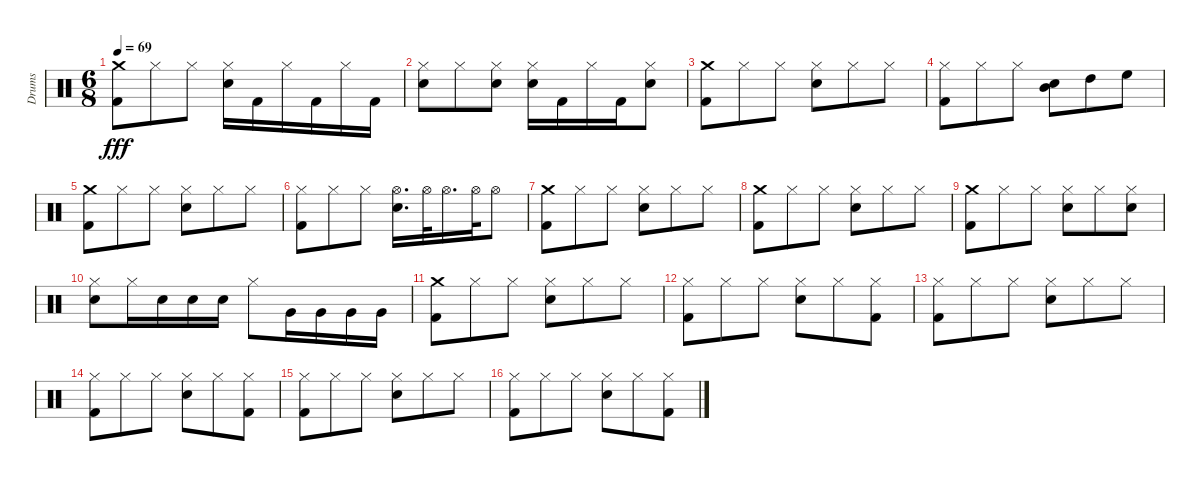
\track ("Drums" "Drums") {instrument percussion}
\staff {score}
\articulation defaults
\ts (6 8)
\tempo 69
\clef neutral
\ks c
("Kick (hit) 2" "Crash medium (hit)").8{dy fff} "Hi-Hat (closed)".8 "Hi-Hat (closed)".8 ("Snare (hit) 2" "Hi-Hat (closed)").16 "Kick (hit) 2".16 "Hi-Hat (closed)".16 "Kick (hit) 2".16 "Hi-Hat (closed)".16 "Kick (hit) 2".16 |
("Snare (hit) 2" "Hi-Hat (closed)").8 "Hi-Hat (closed)".8 ("Snare (hit) 2" "Hi-Hat (closed)").8 ("Snare (hit) 2" "Hi-Hat (closed)").16 "Kick (hit) 2".16 "Hi-Hat (closed)".16 "Kick (hit) 2".16 ("Snare (hit) 2" "Hi-Hat (closed)").8 |
("Kick (hit) 2" "Crash medium (hit)").8 "Hi-Hat (closed)".8 "Hi-Hat (closed)".8 ("Snare (hit) 2" "Hi-Hat (closed)").8 "Hi-Hat (closed)".8 "Hi-Hat (closed)".8 |
("Kick (hit) 2" "Hi-Hat (closed)").8 "Hi-Hat (closed)".8 "Hi-Hat (closed)".8 ("Snare (hit) 2" "Mid Tom (hit)").8 "High Tom (hit)".8 "High Floor Tom (hit)".8 |
("Kick (hit) 2" "Crash medium (hit)").8 "Hi-Hat (closed)".8 "Hi-Hat (closed)".8 ("Snare (hit) 2" "Hi-Hat (closed)").8 "Hi-Hat (closed)".8 "Hi-Hat (closed)".8 |
("Kick (hit) 2" "Hi-Hat (closed)").8 "Hi-Hat (closed)".8 "Hi-Hat (closed)".8 ("Snare (hit) 2" "Hi-Hat (open)").16{d} "Hi-Hat (open)".32 "Hi-Hat (open)".16{d} "Hi-Hat (open)".32 "Hi-Hat (open)".8 |
("Kick (hit) 2" "Crash medium (hit)").8 "Hi-Hat (closed)".8 "Hi-Hat (closed)".8 ("Snare (hit) 2" "Hi-Hat (closed)").8 "Hi-Hat (closed)".8 "Hi-Hat (closed)".8 |
("Kick (hit) 2" "Crash medium (hit)").8 "Hi-Hat (closed)".8 "Hi-Hat (closed)".8 ("Snare (hit) 2" "Hi-Hat (closed)").8 "Hi-Hat (closed)".8 "Hi-Hat (closed)".8 |
("Kick (hit) 2" "Crash medium (hit)").8 "Hi-Hat (closed)".8 "Hi-Hat (closed)".8 ("Snare (hit) 2" "Hi-Hat (closed)").8 "Hi-Hat (closed)".8 ("Snare (hit) 2" "Hi-Hat (closed)").8 |
("Snare (hit) 2" "Hi-Hat (closed)").8 "Hi-Hat (closed)".16 "Snare (hit) 2".16 "Snare (hit) 2".16 "Snare (hit) 2".16 "Hi-Hat (closed)".8 "Very Low Tom (hit)".16 "Very Low Tom (hit)".16 "Very Low Tom (hit)".16 "Very Low Tom (hit)".16 |
("Kick (hit) 2" "Crash medium (hit)").8 "Hi-Hat (closed)".8 "Hi-Hat (closed)".8 ("Snare (hit) 2" "Hi-Hat (closed)").8 "Hi-Hat (closed)".8 "Hi-Hat (closed)".8 |
("Kick (hit) 2" "Hi-Hat (closed)").8 "Hi-Hat (closed)".8 "Hi-Hat (closed)".8 ("Snare (hit) 2" "Hi-Hat (closed)").8 "Hi-Hat (closed)".8 ("Kick (hit) 2" "Hi-Hat (closed)").8 |
("Kick (hit) 2" "Hi-Hat (closed)").8 "Hi-Hat (closed)".8 "Hi-Hat (closed)".8 ("Snare (hit) 2" "Hi-Hat (closed)").8 "Hi-Hat (closed)".8 "Hi-Hat (closed)".8 |
("Kick (hit) 2" "Hi-Hat (closed)").8 "Hi-Hat (closed)".8 "Hi-Hat (closed)".8 ("Snare (hit) 2" "Hi-Hat (closed)").8 "Hi-Hat (closed)".8 ("Kick (hit) 2" "Hi-Hat (closed)").8 |
("Kick (hit) 2" "Hi-Hat (closed)").8 "Hi-Hat (closed)".8 "Hi-Hat (closed)".8 ("Snare (hit) 2" "Hi-Hat (closed)").8 "Hi-Hat (closed)".8 "Hi-Hat (closed)".8 |
("Kick (hit) 2" "Hi-Hat (closed)").8 "Hi-Hat (closed)".8 "Hi-Hat (closed)".8 ("Snare (hit) 2" "Hi-Hat (closed)").8 "Hi-Hat (closed)".8 ("Kick (hit) 2" "Hi-Hat (closed)").8
